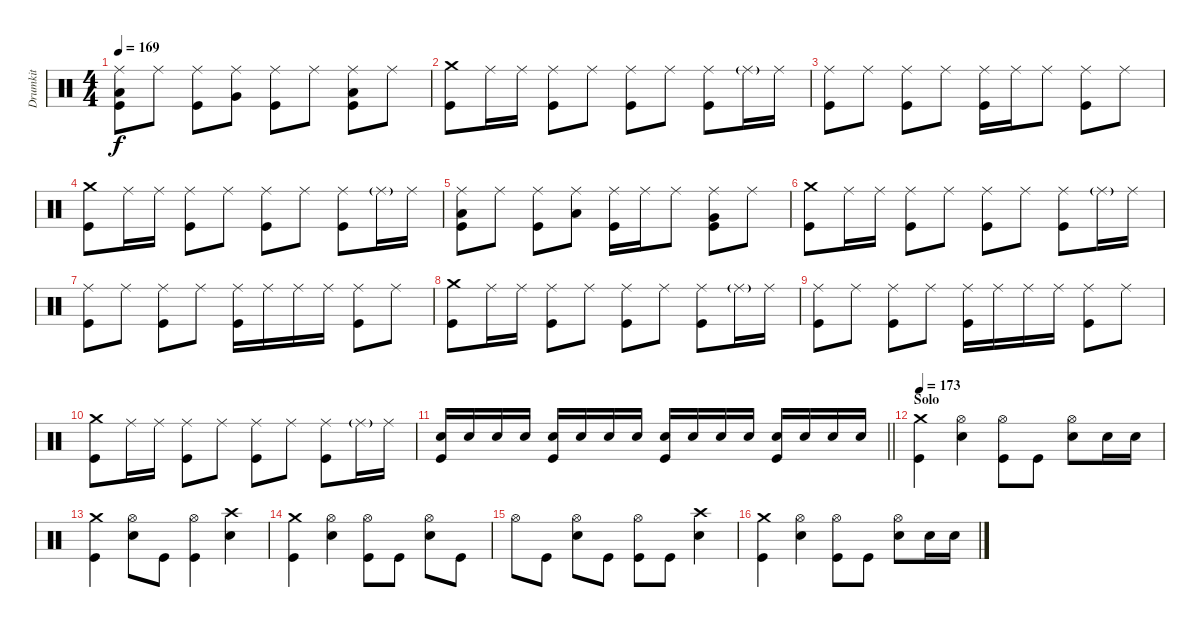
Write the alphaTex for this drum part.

\track ("Drumkit" "Drumkit") {instrument percussion}
\staff {score}
\articulation defaults
\ts (4 4)
\tempo 169
\clef neutral
\ks c
("Ride (middle)" "Low Tom (hit)" "Kick (hit)").8{dy f} "Ride (middle)".8 ("Ride (middle)" "Kick (hit)").8 ("Ride (middle)" "Very Low Tom (hit)").8 ("Ride (middle)" "Kick (hit)").8 "Ride (middle)".8 ("Ride (middle)" "Low Floor Tom (hit)" "Kick (hit)").8 "Ride (middle)".8 |
("Crash medium (hit)" "Kick (hit)").8 "Ride (middle)".16 "Ride (middle)".16 ("Ride (middle)" "Kick (hit)").8 "Ride (middle)".8 ("Ride (middle)" "Kick (hit)").8 "Ride (middle)".8 ("Ride (middle)" "Kick (hit)").8 "Ride (middle)"{g}.16 "Ride (middle)".16 |
("Ride (middle)" "Kick (hit)").8 "Ride (middle)".8 ("Ride (middle)" "Kick (hit)").8 "Ride (middle)".8 ("Ride (middle)" "Kick (hit)").16 "Ride (middle)".16 "Ride (middle)".8 ("Ride (middle)" "Kick (hit)").8 "Ride (middle)".8 |
("Crash medium (hit)" "Kick (hit)").8 "Ride (middle)".16 "Ride (middle)".16 ("Ride (middle)" "Kick (hit)").8 "Ride (middle)".8 ("Ride (middle)" "Kick (hit)").8 "Ride (middle)".8 ("Ride (middle)" "Kick (hit)").8 "Ride (middle)"{g}.16 "Ride (middle)".16 |
("Ride (middle)" "Low Floor Tom (hit)" "Kick (hit)").8 "Ride (middle)".8 ("Ride (middle)" "Kick (hit)").8 ("Ride (middle)" "Low Tom (hit)").8 ("Ride (middle)" "Kick (hit)").16 "Ride (middle)".16 "Ride (middle)".8 ("Ride (middle)" "Very Low Tom (hit)" "Kick (hit)").8 "Ride (middle)".8 |
("Crash medium (hit)" "Kick (hit)").8 "Ride (middle)".16 "Ride (middle)".16 ("Ride (middle)" "Kick (hit)").8 "Ride (middle)".8 ("Ride (middle)" "Kick (hit)").8 "Ride (middle)".8 ("Ride (middle)" "Kick (hit)").8 "Ride (middle)"{g}.16 "Ride (middle)".16 |
("Ride (middle)" "Kick (hit)").8 "Ride (middle)".8 ("Ride (middle)" "Kick (hit)").8 "Ride (middle)".8 ("Ride (middle)" "Kick (hit)").16 "Ride (middle)".16 "Ride (middle)".16 "Ride (middle)".16 ("Ride (middle)" "Kick (hit)").8 "Ride (middle)".8 |
("Crash medium (hit)" "Kick (hit)").8 "Ride (middle)".16 "Ride (middle)".16 ("Ride (middle)" "Kick (hit)").8 "Ride (middle)".8 ("Ride (middle)" "Kick (hit)").8 "Ride (middle)".8 ("Ride (middle)" "Kick (hit)").8 "Ride (middle)"{g}.16 "Ride (middle)".16 |
("Ride (middle)" "Kick (hit)").8 "Ride (middle)".8 ("Ride (middle)" "Kick (hit)").8 "Ride (middle)".8 ("Ride (middle)" "Kick (hit)").16 "Ride (middle)".16 "Ride (middle)".16 "Ride (middle)".16 ("Ride (middle)" "Kick (hit)").8 "Ride (middle)".8 |
("Crash medium (hit)" "Kick (hit)").8 "Ride (middle)".16 "Ride (middle)".16 ("Ride (middle)" "Kick (hit)").8 "Ride (middle)".8 ("Ride (middle)" "Kick (hit)").8 "Ride (middle)".8 ("Ride (middle)" "Kick (hit)").8 "Ride (middle)"{g}.16 "Ride (middle)".16 |
\barLineRight lightlight
("Snare (hit) 2" "Kick (hit)").16 "Snare (hit) 2".16 "Snare (hit) 2".16 "Snare (hit) 2".16 ("Snare (hit) 2" "Kick (hit)").16 "Snare (hit) 2".16 "Snare (hit) 2".16 "Snare (hit) 2".16 ("Snare (hit) 2" "Kick (hit)").16 "Snare (hit) 2".16 "Snare (hit) 2".16 "Snare (hit) 2".16 ("Snare (hit) 2" "Kick (hit)").16 "Snare (hit) 2".16 "Snare (hit) 2".16 "Snare (hit) 2".16 |
\section ("" "Solo")
\tempo 173
("Crash medium (hit)" "Kick (hit)").4 ("Hi-Hat (open)" "Snare (hit) 2").4 ("Hi-Hat (open)" "Kick (hit)").8 "Kick (hit)".8 ("Hi-Hat (open)" "Snare (hit) 2").8 "Snare (hit) 2".16 "Snare (hit) 2".16 |
("Crash medium (hit)" "Kick (hit)").4 ("Hi-Hat (open)" "Snare (hit) 2").8 "Kick (hit)".8 ("Hi-Hat (open)" "Kick (hit)").4 ("Crash high (hit)" "Snare (hit) 2").4 |
("Crash medium (hit)" "Kick (hit)").4 ("Hi-Hat (open)" "Snare (hit) 2").4 ("Hi-Hat (open)" "Kick (hit)").8 "Kick (hit)".8 ("Hi-Hat (open)" "Snare (hit) 2").8 "Kick (hit)".8 |
"Hi-Hat (open)".8 "Kick (hit)".8 ("Hi-Hat (open)" "Snare (hit) 2").8 "Kick (hit)".8 ("Hi-Hat (open)" "Kick (hit)").8 "Kick (hit)".8 ("Crash high (hit)" "Snare (hit) 2").4 |
("Crash medium (hit)" "Kick (hit)").4 ("Hi-Hat (open)" "Snare (hit) 2").4 ("Hi-Hat (open)" "Kick (hit)").8 "Kick (hit)".8 ("Hi-Hat (open)" "Snare (hit) 2").8 "Snare (hit) 2".16 "Snare (hit) 2".16
